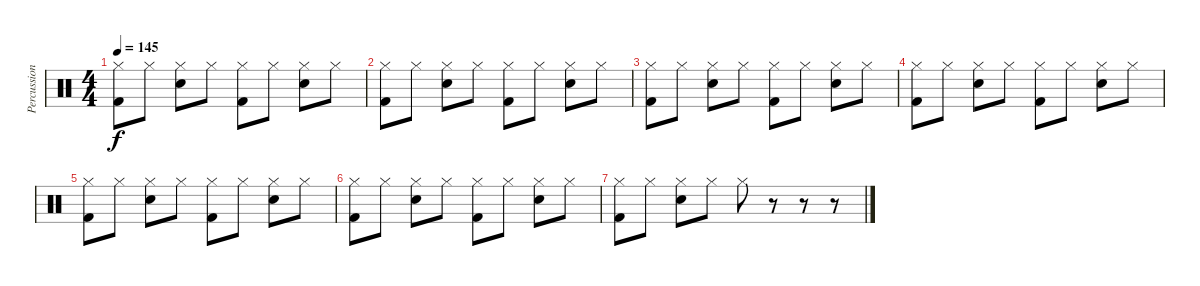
\track ("Percussion (Other)" "Percussion") {instrument percussion}
\staff {score}
\articulation defaults
\ts (4 4)
\tempo 145
\clef neutral
\ks c
("Hi-Hat (closed)" "Kick (hit) 2").8{dy f} "Hi-Hat (closed)".8 ("Hi-Hat (closed)" "Snare (hit) 2").8 "Hi-Hat (closed)".8 ("Hi-Hat (closed)" "Kick (hit) 2").8 "Hi-Hat (closed)".8 ("Hi-Hat (closed)" "Snare (hit) 2").8 "Hi-Hat (closed)".8 |
("Hi-Hat (closed)" "Kick (hit) 2").8 "Hi-Hat (closed)".8 ("Hi-Hat (closed)" "Snare (hit) 2").8 "Hi-Hat (closed)".8 ("Hi-Hat (closed)" "Kick (hit) 2").8 "Hi-Hat (closed)".8 ("Hi-Hat (closed)" "Snare (hit) 2").8 "Hi-Hat (closed)".8 |
("Hi-Hat (closed)" "Kick (hit) 2").8 "Hi-Hat (closed)".8 ("Hi-Hat (closed)" "Snare (hit) 2").8 "Hi-Hat (closed)".8 ("Hi-Hat (closed)" "Kick (hit) 2").8 "Hi-Hat (closed)".8 ("Hi-Hat (closed)" "Snare (hit) 2").8 "Hi-Hat (closed)".8 |
("Hi-Hat (closed)" "Kick (hit) 2").8 "Hi-Hat (closed)".8 ("Hi-Hat (closed)" "Snare (hit) 2").8 "Hi-Hat (closed)".8 ("Hi-Hat (closed)" "Kick (hit) 2").8 "Hi-Hat (closed)".8 ("Hi-Hat (closed)" "Snare (hit) 2").8 "Hi-Hat (closed)".8 |
("Hi-Hat (closed)" "Kick (hit) 2").8 "Hi-Hat (closed)".8 ("Hi-Hat (closed)" "Snare (hit) 2").8 "Hi-Hat (closed)".8 ("Hi-Hat (closed)" "Kick (hit) 2").8 "Hi-Hat (closed)".8 ("Hi-Hat (closed)" "Snare (hit) 2").8 "Hi-Hat (closed)".8 |
("Hi-Hat (closed)" "Kick (hit) 2").8 "Hi-Hat (closed)".8 ("Hi-Hat (closed)" "Snare (hit) 2").8 "Hi-Hat (closed)".8 ("Hi-Hat (closed)" "Kick (hit) 2").8 "Hi-Hat (closed)".8 ("Hi-Hat (closed)" "Snare (hit) 2").8 "Hi-Hat (closed)".8 |
("Hi-Hat (closed)" "Kick (hit) 2").8 "Hi-Hat (closed)".8 ("Hi-Hat (closed)" "Snare (hit) 2").8 "Hi-Hat (closed)".8 "Hi-Hat (closed)".8 r.8 r.8 r.8
